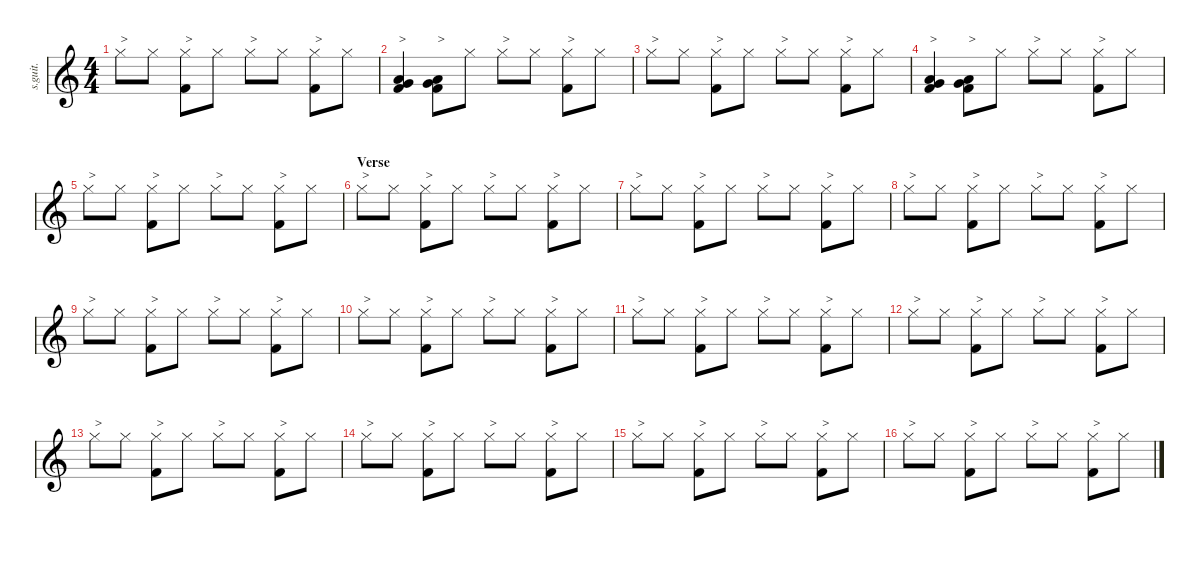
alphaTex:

\defaultSystemsLayout 4
\hideDynamics
\bracketExtendMode nobrackets
\track ("Chris Slade" "s.guit.") {instrument percussion}
\staff {score}
\articulation defaults
\ts (4 4)
\tempo (134 hide)
\clef g2
\ks c "Hi-Hat (closed)".8{txt ">" lyrics (0 "") lyrics (1 "") lyrics (2 "") lyrics (3 "") lyrics (4 "") dy ff} "Hi-Hat (closed)".8{lyrics (0 "") lyrics (1 "") lyrics (2 "") lyrics (3 "") lyrics (4 "") dy mf}
("Hi-Hat (closed)" "Kick (hit) 2").8{txt ">" lyrics (0 "") lyrics (1 "") lyrics (2 "") lyrics (3 "") lyrics (4 "") dy f} "Hi-Hat (closed)".8{lyrics (0 "") lyrics (1 "") lyrics (2 "") lyrics (3 "") lyrics (4 "") dy mf} "Hi-Hat (closed)".8{txt ">" lyrics (0 "") lyrics (1 "") lyrics (2 "") lyrics (3 "") lyrics (4 "") dy ff} "Hi-Hat (closed)".8{lyrics (0 "") lyrics (1 "") lyrics (2 "") lyrics (3 "") lyrics (4 "") dy mf} ("Hi-Hat (closed)" "Kick (hit) 2").8{txt ">" lyrics (0 "") lyrics (1 "") lyrics (2 "") lyrics (3 "") lyrics (4 "") dy f} "Hi-Hat (closed)".8{lyrics (0 "") lyrics (1 "") lyrics (2 "") lyrics (3 "") lyrics (4 "") dy mf} |
("Very Low Tom (hit)" "Low Floor Tom (hit)" "Kick (hit) 2").4{txt ">" lyrics (0 "") lyrics (1 "") lyrics (2 "") lyrics (3 "") lyrics (4 "") dy ff} ("Very Low Tom (hit)" "Low Floor Tom (hit)" "Kick (hit) 2").8{txt ">" lyrics (0 "") lyrics (1 "") lyrics (2 "") lyrics (3 "") lyrics (4 "")} "Hi-Hat (closed)".8{lyrics (0 "") lyrics (1 "") lyrics (2 "") lyrics (3 "") lyrics (4 "") dy mf} "Hi-Hat (closed)".8{txt ">" lyrics (0 "") lyrics (1 "") lyrics (2 "") lyrics (3 "") lyrics (4 "") dy ff} "Hi-Hat (closed)".8{lyrics (0 "") lyrics (1 "") lyrics (2 "") lyrics (3 "") lyrics (4 "") dy mf} ("Hi-Hat (closed)" "Kick (hit) 2").8{txt ">" lyrics (0 "") lyrics (1 "") lyrics (2 "") lyrics (3 "") lyrics (4 "") dy f} "Hi-Hat (closed)".8{lyrics (0 "") lyrics (1 "") lyrics (2 "") lyrics (3 "") lyrics (4 "") dy mf} |
"Hi-Hat (closed)".8{txt ">" lyrics (0 "") lyrics (1 "") lyrics (2 "") lyrics (3 "") lyrics (4 "") dy ff} "Hi-Hat (closed)".8{lyrics (0 "") lyrics (1 "") lyrics (2 "") lyrics (3 "") lyrics (4 "") dy mf} ("Hi-Hat (closed)" "Kick (hit) 2").8{txt ">" lyrics (0 "") lyrics (1 "") lyrics (2 "") lyrics (3 "") lyrics (4 "") dy f} "Hi-Hat (closed)".8{lyrics (0 "") lyrics (1 "") lyrics (2 "") lyrics (3 "") lyrics (4 "") dy mf} "Hi-Hat (closed)".8{txt ">" lyrics (0 "") lyrics (1 "") lyrics (2 "") lyrics (3 "") lyrics (4 "") dy ff} "Hi-Hat (closed)".8{lyrics (0 "") lyrics (1 "") lyrics (2 "") lyrics (3 "") lyrics (4 "") dy mf} ("Hi-Hat (closed)" "Kick (hit) 2").8{txt ">" lyrics (0 "") lyrics (1 "") lyrics (2 "") lyrics (3 "") lyrics (4 "") dy f} "Hi-Hat (closed)".8{lyrics (0 "") lyrics (1 "") lyrics (2 "") lyrics (3 "") lyrics (4 "") dy mf} |
("Very Low Tom (hit)" "Low Floor Tom (hit)" "Kick (hit) 2").4{txt ">" lyrics (0 "") lyrics (1 "") lyrics (2 "") lyrics (3 "") lyrics (4 "") dy ff} ("Very Low Tom (hit)" "Low Floor Tom (hit)" "Kick (hit) 2").8{txt ">" lyrics (0 "") lyrics (1 "") lyrics (2 "") lyrics (3 "") lyrics (4 "")} "Hi-Hat (closed)".8{lyrics (0 "") lyrics (1 "") lyrics (2 "") lyrics (3 "") lyrics (4 "") dy mf} "Hi-Hat (closed)".8{txt ">" lyrics (0 "") lyrics (1 "") lyrics (2 "") lyrics (3 "") lyrics (4 "") dy ff} "Hi-Hat (closed)".8{lyrics (0 "") lyrics (1 "") lyrics (2 "") lyrics (3 "") lyrics (4 "") dy mf} ("Hi-Hat (closed)" "Kick (hit) 2").8{txt ">" lyrics (0 "") lyrics (1 "") lyrics (2 "") lyrics (3 "") lyrics (4 "") dy f} "Hi-Hat (closed)".8{lyrics (0 "") lyrics (1 "") lyrics (2 "") lyrics (3 "") lyrics (4 "") dy mf} |
"Hi-Hat (closed)".8{txt ">" lyrics (0 "") lyrics (1 "") lyrics (2 "") lyrics (3 "") lyrics (4 "") dy ff} "Hi-Hat (closed)".8{lyrics (0 "") lyrics (1 "") lyrics (2 "") lyrics (3 "") lyrics (4 "") dy mf} ("Hi-Hat (closed)" "Kick (hit) 2").8{txt ">" lyrics (0 "") lyrics (1 "") lyrics (2 "") lyrics (3 "") lyrics (4 "") dy f} "Hi-Hat (closed)".8{lyrics (0 "") lyrics (1 "") lyrics (2 "") lyrics (3 "") lyrics (4 "") dy mf} "Hi-Hat (closed)".8{txt ">" lyrics (0 "") lyrics (1 "") lyrics (2 "") lyrics (3 "") lyrics (4 "") dy ff} "Hi-Hat (closed)".8{lyrics (0 "") lyrics (1 "") lyrics (2 "") lyrics (3 "") lyrics (4 "") dy mf} ("Hi-Hat (closed)" "Kick (hit) 2").8{txt ">" lyrics (0 "") lyrics (1 "") lyrics (2 "") lyrics (3 "") lyrics (4 "") dy f} "Hi-Hat (closed)".8{lyrics (0 "") lyrics (1 "") lyrics (2 "") lyrics (3 "") lyrics (4 "") dy mf} |
\section ("" "Verse")
"Hi-Hat (closed)".8{txt ">" lyrics (0 "") lyrics (1 "") lyrics (2 "") lyrics (3 "") lyrics (4 "") dy ff} "Hi-Hat (closed)".8{lyrics (0 "") lyrics (1 "") lyrics (2 "") lyrics (3 "") lyrics (4 "") dy mf} ("Hi-Hat (closed)" "Kick (hit) 2").8{txt ">" lyrics (0 "") lyrics (1 "") lyrics (2 "") lyrics (3 "") lyrics (4 "") dy f} "Hi-Hat (closed)".8{lyrics (0 "") lyrics (1 "") lyrics (2 "") lyrics (3 "") lyrics (4 "") dy mf} "Hi-Hat (closed)".8{txt ">" lyrics (0 "") lyrics (1 "") lyrics (2 "") lyrics (3 "") lyrics (4 "") dy ff} "Hi-Hat (closed)".8{lyrics (0 "") lyrics (1 "") lyrics (2 "") lyrics (3 "") lyrics (4 "") dy mf} ("Hi-Hat (closed)" "Kick (hit) 2").8{txt ">" lyrics (0 "") lyrics (1 "") lyrics (2 "") lyrics (3 "") lyrics (4 "") dy f} "Hi-Hat (closed)".8{lyrics (0 "") lyrics (1 "") lyrics (2 "") lyrics (3 "") lyrics (4 "") dy mf} |
"Hi-Hat (closed)".8{txt ">" lyrics (0 "") lyrics (1 "") lyrics (2 "") lyrics (3 "") lyrics (4 "") dy ff} "Hi-Hat (closed)".8{lyrics (0 "") lyrics (1 "") lyrics (2 "") lyrics (3 "") lyrics (4 "") dy mf} ("Hi-Hat (closed)" "Kick (hit) 2").8{txt ">" lyrics (0 "") lyrics (1 "") lyrics (2 "") lyrics (3 "") lyrics (4 "") dy f} "Hi-Hat (closed)".8{lyrics (0 "") lyrics (1 "") lyrics (2 "") lyrics (3 "") lyrics (4 "") dy mf} "Hi-Hat (closed)".8{txt ">" lyrics (0 "") lyrics (1 "") lyrics (2 "") lyrics (3 "") lyrics (4 "") dy ff} "Hi-Hat (closed)".8{lyrics (0 "") lyrics (1 "") lyrics (2 "") lyrics (3 "") lyrics (4 "") dy mf} ("Hi-Hat (closed)" "Kick (hit) 2").8{txt ">" lyrics (0 "") lyrics (1 "") lyrics (2 "") lyrics (3 "") lyrics (4 "") dy f} "Hi-Hat (closed)".8{lyrics (0 "") lyrics (1 "") lyrics (2 "") lyrics (3 "") lyrics (4 "") dy mf} |
"Hi-Hat (closed)".8{txt ">" lyrics (0 "") lyrics (1 "") lyrics (2 "") lyrics (3 "") lyrics (4 "") dy ff} "Hi-Hat (closed)".8{lyrics (0 "") lyrics (1 "") lyrics (2 "") lyrics (3 "") lyrics (4 "") dy mf} ("Hi-Hat (closed)" "Kick (hit) 2").8{txt ">" lyrics (0 "") lyrics (1 "") lyrics (2 "") lyrics (3 "") lyrics (4 "") dy f} "Hi-Hat (closed)".8{lyrics (0 "") lyrics (1 "") lyrics (2 "") lyrics (3 "") lyrics (4 "") dy mf} "Hi-Hat (closed)".8{txt ">" lyrics (0 "") lyrics (1 "") lyrics (2 "") lyrics (3 "") lyrics (4 "") dy ff} "Hi-Hat (closed)".8{lyrics (0 "") lyrics (1 "") lyrics (2 "") lyrics (3 "") lyrics (4 "") dy mf} ("Hi-Hat (closed)" "Kick (hit) 2").8{txt ">" lyrics (0 "") lyrics (1 "") lyrics (2 "") lyrics (3 "") lyrics (4 "") dy f} "Hi-Hat (closed)".8{lyrics (0 "") lyrics (1 "") lyrics (2 "") lyrics (3 "") lyrics (4 "") dy mf} |
"Hi-Hat (closed)".8{txt ">" lyrics (0 "") lyrics (1 "") lyrics (2 "") lyrics (3 "") lyrics (4 "") dy ff} "Hi-Hat (closed)".8{lyrics (0 "") lyrics (1 "") lyrics (2 "") lyrics (3 "") lyrics (4 "") dy mf} ("Hi-Hat (closed)" "Kick (hit) 2").8{txt ">" lyrics (0 "") lyrics (1 "") lyrics (2 "") lyrics (3 "") lyrics (4 "") dy f} "Hi-Hat (closed)".8{lyrics (0 "") lyrics (1 "") lyrics (2 "") lyrics (3 "") lyrics (4 "") dy mf} "Hi-Hat (closed)".8{txt ">" lyrics (0 "") lyrics (1 "") lyrics (2 "") lyrics (3 "") lyrics (4 "") dy ff} "Hi-Hat (closed)".8{lyrics (0 "") lyrics (1 "") lyrics (2 "") lyrics (3 "") lyrics (4 "") dy mf} ("Hi-Hat (closed)" "Kick (hit) 2").8{txt ">" lyrics (0 "") lyrics (1 "") lyrics (2 "") lyrics (3 "") lyrics (4 "") dy f} "Hi-Hat (closed)".8{lyrics (0 "") lyrics (1 "") lyrics (2 "") lyrics (3 "") lyrics (4 "") dy mf} |
"Hi-Hat (closed)".8{txt ">" lyrics (0 "") lyrics (1 "") lyrics (2 "") lyrics (3 "") lyrics (4 "") dy ff} "Hi-Hat (closed)".8{lyrics (0 "") lyrics (1 "") lyrics (2 "") lyrics (3 "") lyrics (4 "") dy mf} ("Hi-Hat (closed)" "Kick (hit) 2").8{txt ">" lyrics (0 "") lyrics (1 "") lyrics (2 "") lyrics (3 "") lyrics (4 "") dy f} "Hi-Hat (closed)".8{lyrics (0 "") lyrics (1 "") lyrics (2 "") lyrics (3 "") lyrics (4 "") dy mf} "Hi-Hat (closed)".8{txt ">" lyrics (0 "") lyrics (1 "") lyrics (2 "") lyrics (3 "") lyrics (4 "") dy ff} "Hi-Hat (closed)".8{lyrics (0 "") lyrics (1 "") lyrics (2 "") lyrics (3 "") lyrics (4 "") dy mf} ("Hi-Hat (closed)" "Kick (hit) 2").8{txt ">" lyrics (0 "") lyrics (1 "") lyrics (2 "") lyrics (3 "") lyrics (4 "") dy f} "Hi-Hat (closed)".8{lyrics (0 "") lyrics (1 "") lyrics (2 "") lyrics (3 "") lyrics (4 "") dy mf} |
"Hi-Hat (closed)".8{txt ">" lyrics (0 "") lyrics (1 "") lyrics (2 "") lyrics (3 "") lyrics (4 "") dy ff} "Hi-Hat (closed)".8{lyrics (0 "") lyrics (1 "") lyrics (2 "") lyrics (3 "") lyrics (4 "") dy mf} ("Hi-Hat (closed)" "Kick (hit) 2").8{txt ">" lyrics (0 "") lyrics (1 "") lyrics (2 "") lyrics (3 "") lyrics (4 "") dy f} "Hi-Hat (closed)".8{lyrics (0 "") lyrics (1 "") lyrics (2 "") lyrics (3 "") lyrics (4 "") dy mf} "Hi-Hat (closed)".8{txt ">" lyrics (0 "") lyrics (1 "") lyrics (2 "") lyrics (3 "") lyrics (4 "") dy ff} "Hi-Hat (closed)".8{lyrics (0 "") lyrics (1 "") lyrics (2 "") lyrics (3 "") lyrics (4 "") dy mf} ("Hi-Hat (closed)" "Kick (hit) 2").8{txt ">" lyrics (0 "") lyrics (1 "") lyrics (2 "") lyrics (3 "") lyrics (4 "") dy f} "Hi-Hat (closed)".8{lyrics (0 "") lyrics (1 "") lyrics (2 "") lyrics (3 "") lyrics (4 "") dy mf} |
"Hi-Hat (closed)".8{txt ">" lyrics (0 "") lyrics (1 "") lyrics (2 "") lyrics (3 "") lyrics (4 "") dy ff} "Hi-Hat (closed)".8{lyrics (0 "") lyrics (1 "") lyrics (2 "") lyrics (3 "") lyrics (4 "") dy mf} ("Hi-Hat (closed)" "Kick (hit) 2").8{txt ">" lyrics (0 "") lyrics (1 "") lyrics (2 "") lyrics (3 "") lyrics (4 "") dy f} "Hi-Hat (closed)".8{lyrics (0 "") lyrics (1 "") lyrics (2 "") lyrics (3 "") lyrics (4 "") dy mf} "Hi-Hat (closed)".8{txt ">" lyrics (0 "") lyrics (1 "") lyrics (2 "") lyrics (3 "") lyrics (4 "") dy ff} "Hi-Hat (closed)".8{lyrics (0 "") lyrics (1 "") lyrics (2 "") lyrics (3 "") lyrics (4 "") dy mf} ("Hi-Hat (closed)" "Kick (hit) 2").8{txt ">" lyrics (0 "") lyrics (1 "") lyrics (2 "") lyrics (3 "") lyrics (4 "") dy f} "Hi-Hat (closed)".8{lyrics (0 "") lyrics (1 "") lyrics (2 "") lyrics (3 "") lyrics (4 "") dy mf} |
"Hi-Hat (closed)".8{txt ">" lyrics (0 "") lyrics (1 "") lyrics (2 "") lyrics (3 "") lyrics (4 "") dy ff} "Hi-Hat (closed)".8{lyrics (0 "") lyrics (1 "") lyrics (2 "") lyrics (3 "") lyrics (4 "") dy mf} ("Hi-Hat (closed)" "Kick (hit) 2").8{txt ">" lyrics (0 "") lyrics (1 "") lyrics (2 "") lyrics (3 "") lyrics (4 "") dy f} "Hi-Hat (closed)".8{lyrics (0 "") lyrics (1 "") lyrics (2 "") lyrics (3 "") lyrics (4 "") dy mf} "Hi-Hat (closed)".8{txt ">" lyrics (0 "") lyrics (1 "") lyrics (2 "") lyrics (3 "") lyrics (4 "") dy ff} "Hi-Hat (closed)".8{lyrics (0 "") lyrics (1 "") lyrics (2 "") lyrics (3 "") lyrics (4 "") dy mf} ("Hi-Hat (closed)" "Kick (hit) 2").8{txt ">" lyrics (0 "") lyrics (1 "") lyrics (2 "") lyrics (3 "") lyrics (4 "") dy f} "Hi-Hat (closed)".8{lyrics (0 "") lyrics (1 "") lyrics (2 "") lyrics (3 "") lyrics (4 "") dy mf} |
"Hi-Hat (closed)".8{txt ">" lyrics (0 "") lyrics (1 "") lyrics (2 "") lyrics (3 "") lyrics (4 "") dy ff} "Hi-Hat (closed)".8{lyrics (0 "") lyrics (1 "") lyrics (2 "") lyrics (3 "") lyrics (4 "") dy mf} ("Hi-Hat (closed)" "Kick (hit) 2").8{txt ">" lyrics (0 "") lyrics (1 "") lyrics (2 "") lyrics (3 "") lyrics (4 "") dy f} "Hi-Hat (closed)".8{lyrics (0 "") lyrics (1 "") lyrics (2 "") lyrics (3 "") lyrics (4 "") dy mf} "Hi-Hat (closed)".8{txt ">" lyrics (0 "") lyrics (1 "") lyrics (2 "") lyrics (3 "") lyrics (4 "") dy ff} "Hi-Hat (closed)".8{lyrics (0 "") lyrics (1 "") lyrics (2 "") lyrics (3 "") lyrics (4 "") dy mf} ("Hi-Hat (closed)" "Kick (hit) 2").8{txt ">" lyrics (0 "") lyrics (1 "") lyrics (2 "") lyrics (3 "") lyrics (4 "") dy f} "Hi-Hat (closed)".8{lyrics (0 "") lyrics (1 "") lyrics (2 "") lyrics (3 "") lyrics (4 "") dy mf} |
"Hi-Hat (closed)".8{txt ">" lyrics (0 "") lyrics (1 "") lyrics (2 "") lyrics (3 "") lyrics (4 "") dy ff} "Hi-Hat (closed)".8{lyrics (0 "") lyrics (1 "") lyrics (2 "") lyrics (3 "") lyrics (4 "") dy mf} ("Hi-Hat (closed)" "Kick (hit) 2").8{txt ">" lyrics (0 "") lyrics (1 "") lyrics (2 "") lyrics (3 "") lyrics (4 "") dy f} "Hi-Hat (closed)".8{lyrics (0 "") lyrics (1 "") lyrics (2 "") lyrics (3 "") lyrics (4 "") dy mf} "Hi-Hat (closed)".8{txt ">" lyrics (0 "") lyrics (1 "") lyrics (2 "") lyrics (3 "") lyrics (4 "") dy ff} "Hi-Hat (closed)".8{lyrics (0 "") lyrics (1 "") lyrics (2 "") lyrics (3 "") lyrics (4 "") dy mf} ("Hi-Hat (closed)" "Kick (hit) 2").8{txt ">" lyrics (0 "") lyrics (1 "") lyrics (2 "") lyrics (3 "") lyrics (4 "") dy f} "Hi-Hat (closed)".8{lyrics (0 "") lyrics (1 "") lyrics (2 "") lyrics (3 "") lyrics (4 "") dy mf} |
"Hi-Hat (closed)".8{txt ">" lyrics (0 "") lyrics (1 "") lyrics (2 "") lyrics (3 "") lyrics (4 "") dy ff} "Hi-Hat (closed)".8{lyrics (0 "") lyrics (1 "") lyrics (2 "") lyrics (3 "") lyrics (4 "") dy mf} ("Hi-Hat (closed)" "Kick (hit) 2").8{txt ">" lyrics (0 "") lyrics (1 "") lyrics (2 "") lyrics (3 "") lyrics (4 "") dy f} "Hi-Hat (closed)".8{lyrics (0 "") lyrics (1 "") lyrics (2 "") lyrics (3 "") lyrics (4 "") dy mf} "Hi-Hat (closed)".8{txt ">" lyrics (0 "") lyrics (1 "") lyrics (2 "") lyrics (3 "") lyrics (4 "") dy ff} "Hi-Hat (closed)".8{lyrics (0 "") lyrics (1 "") lyrics (2 "") lyrics (3 "") lyrics (4 "") dy mf} ("Hi-Hat (closed)" "Kick (hit) 2").8{txt ">" lyrics (0 "") lyrics (1 "") lyrics (2 "") lyrics (3 "") lyrics (4 "") dy f} "Hi-Hat (closed)".8{lyrics (0 "") lyrics (1 "") lyrics (2 "") lyrics (3 "") lyrics (4 "") dy mf}
